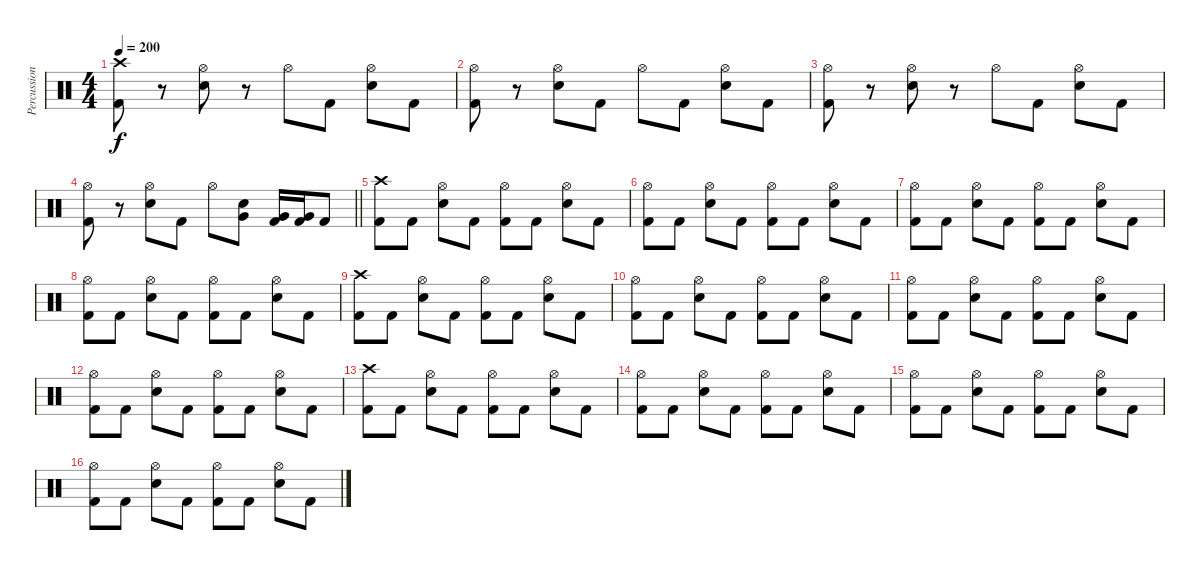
\track ("Percussion" "Percussion") {instrument percussion}
\staff {score}
\articulation defaults
\ts (4 4)
\tempo 200
\clef neutral
\ks c
("Crash high (hit)" "Kick (hit) 2").8{dy f} r.8 ("Hi-Hat (open)" "Snare (hit) 2").8 r.8 "Hi-Hat (open)".8 "Kick (hit) 2".8 ("Hi-Hat (open)" "Snare (hit) 2").8 "Kick (hit) 2".8 |
("Hi-Hat (open)" "Kick (hit) 2").8 r.8 ("Hi-Hat (open)" "Snare (hit) 2").8 "Kick (hit) 2".8 "Hi-Hat (open)".8 "Kick (hit) 2".8 ("Hi-Hat (open)" "Snare (hit) 2").8 "Kick (hit) 2".8 |
("Hi-Hat (open)" "Kick (hit) 2").8 r.8 ("Hi-Hat (open)" "Snare (hit) 2").8 r.8 "Hi-Hat (open)".8 "Kick (hit) 2".8 ("Hi-Hat (open)" "Snare (hit) 2").8 "Kick (hit) 2".8 |
\barLineRight lightlight
("Hi-Hat (open)" "Kick (hit) 2").8 r.8 ("Hi-Hat (open)" "Snare (hit) 2").8 "Kick (hit) 2".8 "Hi-Hat (open)".8 ("Very Low Tom (hit)" "Snare (hit) 2").8 ("Very Low Tom (hit)" "Kick (hit) 2").16 ("Very Low Tom (hit)" "Kick (hit) 2").16 "Kick (hit) 2".8 |
("Crash high (hit)" "Kick (hit) 2").8 "Kick (hit) 2".8 ("Hi-Hat (open)" "Snare (hit) 2").8 "Kick (hit) 2".8 ("Hi-Hat (open)" "Kick (hit) 2").8 "Kick (hit) 2".8 ("Hi-Hat (open)" "Snare (hit) 2").8 "Kick (hit) 2".8 |
("Hi-Hat (open)" "Kick (hit) 2").8 "Kick (hit) 2".8 ("Hi-Hat (open)" "Snare (hit) 2").8 "Kick (hit) 2".8 ("Hi-Hat (open)" "Kick (hit) 2").8 "Kick (hit) 2".8 ("Hi-Hat (open)" "Snare (hit) 2").8 "Kick (hit) 2".8 |
("Hi-Hat (open)" "Kick (hit) 2").8 "Kick (hit) 2".8 ("Hi-Hat (open)" "Snare (hit) 2").8 "Kick (hit) 2".8 ("Hi-Hat (open)" "Kick (hit) 2").8 "Kick (hit) 2".8 ("Hi-Hat (open)" "Snare (hit) 2").8 "Kick (hit) 2".8 |
("Hi-Hat (open)" "Kick (hit) 2").8 "Kick (hit) 2".8 ("Hi-Hat (open)" "Snare (hit) 2").8 "Kick (hit) 2".8 ("Hi-Hat (open)" "Kick (hit) 2").8 "Kick (hit) 2".8 ("Hi-Hat (open)" "Snare (hit) 2").8 "Kick (hit) 2".8 |
("Crash high (hit)" "Kick (hit) 2").8 "Kick (hit) 2".8 ("Hi-Hat (open)" "Snare (hit) 2").8 "Kick (hit) 2".8 ("Hi-Hat (open)" "Kick (hit) 2").8 "Kick (hit) 2".8 ("Hi-Hat (open)" "Snare (hit) 2").8 "Kick (hit) 2".8 |
("Hi-Hat (open)" "Kick (hit) 2").8 "Kick (hit) 2".8 ("Hi-Hat (open)" "Snare (hit) 2").8 "Kick (hit) 2".8 ("Hi-Hat (open)" "Kick (hit) 2").8 "Kick (hit) 2".8 ("Hi-Hat (open)" "Snare (hit) 2").8 "Kick (hit) 2".8 |
("Hi-Hat (open)" "Kick (hit) 2").8 "Kick (hit) 2".8 ("Hi-Hat (open)" "Snare (hit) 2").8 "Kick (hit) 2".8 ("Hi-Hat (open)" "Kick (hit) 2").8 "Kick (hit) 2".8 ("Hi-Hat (open)" "Snare (hit) 2").8 "Kick (hit) 2".8 |
("Hi-Hat (open)" "Kick (hit) 2").8 "Kick (hit) 2".8 ("Hi-Hat (open)" "Snare (hit) 2").8 "Kick (hit) 2".8 ("Hi-Hat (open)" "Kick (hit) 2").8 "Kick (hit) 2".8 ("Hi-Hat (open)" "Snare (hit) 2").8 "Kick (hit) 2".8 |
("Crash high (hit)" "Kick (hit) 2").8 "Kick (hit) 2".8 ("Hi-Hat (open)" "Snare (hit) 2").8 "Kick (hit) 2".8 ("Hi-Hat (open)" "Kick (hit) 2").8 "Kick (hit) 2".8 ("Hi-Hat (open)" "Snare (hit) 2").8 "Kick (hit) 2".8 |
("Hi-Hat (open)" "Kick (hit) 2").8 "Kick (hit) 2".8 ("Hi-Hat (open)" "Snare (hit) 2").8 "Kick (hit) 2".8 ("Hi-Hat (open)" "Kick (hit) 2").8 "Kick (hit) 2".8 ("Hi-Hat (open)" "Snare (hit) 2").8 "Kick (hit) 2".8 |
("Hi-Hat (open)" "Kick (hit) 2").8 "Kick (hit) 2".8 ("Hi-Hat (open)" "Snare (hit) 2").8 "Kick (hit) 2".8 ("Hi-Hat (open)" "Kick (hit) 2").8 "Kick (hit) 2".8 ("Hi-Hat (open)" "Snare (hit) 2").8 "Kick (hit) 2".8 |
("Hi-Hat (open)" "Kick (hit) 2").8 "Kick (hit) 2".8 ("Hi-Hat (open)" "Snare (hit) 2").8 "Kick (hit) 2".8 ("Hi-Hat (open)" "Kick (hit) 2").8 "Kick (hit) 2".8 ("Hi-Hat (open)" "Snare (hit) 2").8 "Kick (hit) 2".8
